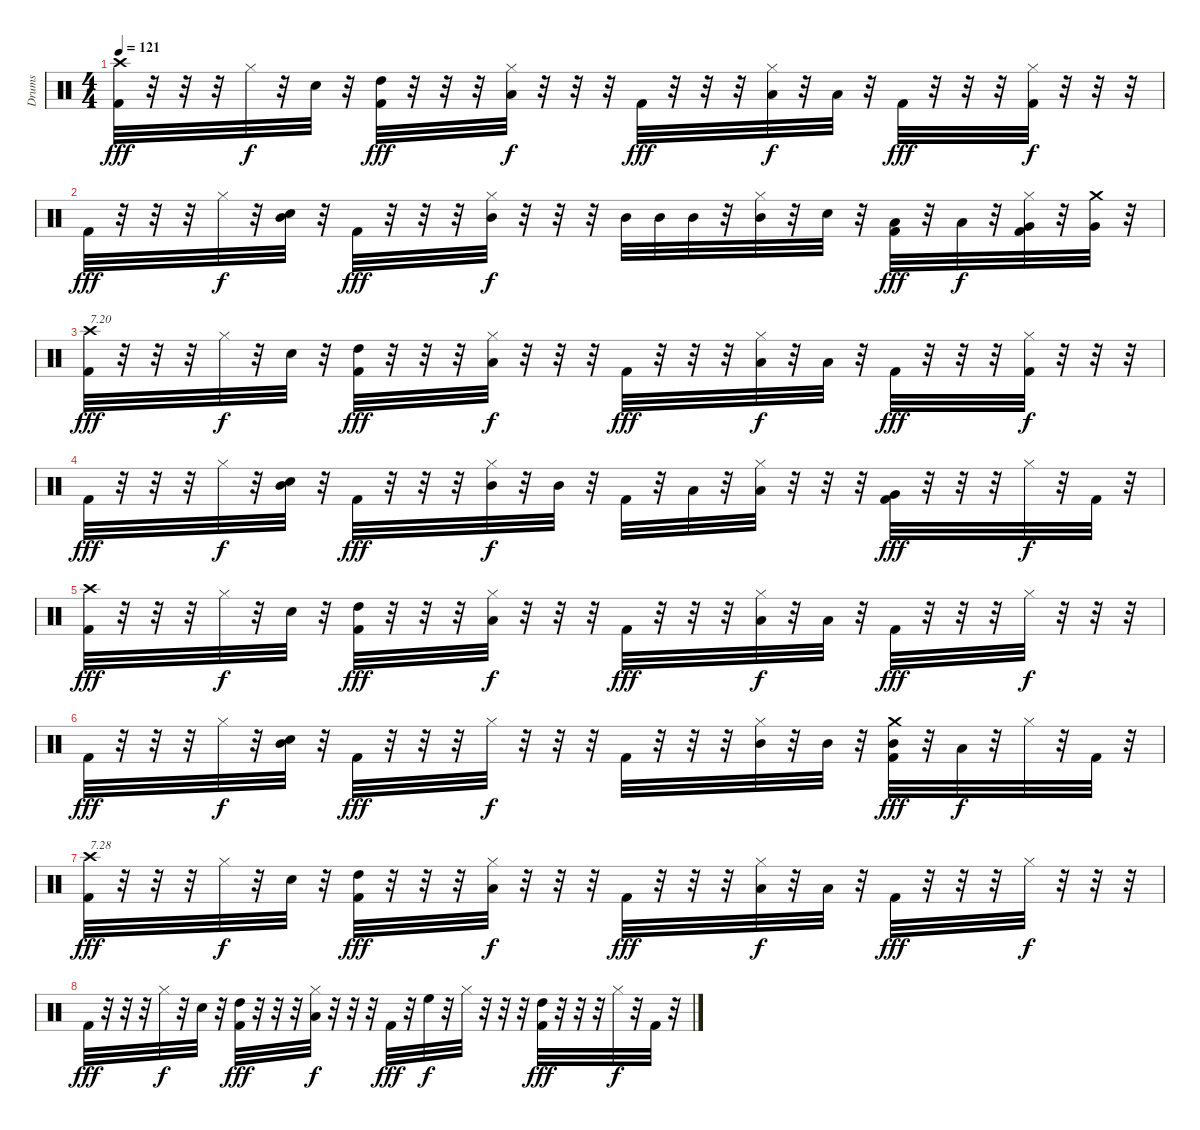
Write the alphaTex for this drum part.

\track ("Drums" "Drums") {instrument percussion}
\staff {score}
\articulation defaults
\ts (4 4)
\tempo 121
\clef neutral
\ks c
("Kick (hit) 2" "Crash high (hit)").32{dy fff} r.32 r.32 r.32 "Hi-Hat (closed)".32{dy f} r.32 "Snare (hit) 2".32 r.32 ("Kick (hit) 2" "High Tom (hit)").32{dy fff} r.32 r.32 r.32 ("Hi-Hat (closed)" "Low Tom (hit)").32{dy f} r.32 r.32 r.32 "Kick (hit) 2".32{dy fff} r.32 r.32 r.32 ("Hi-Hat (closed)" "Low Tom (hit)").32{dy f} r.32 "Low Tom (hit)".32 r.32 "Kick (hit) 2".32{dy fff} r.32 r.32 r.32 ("Hi-Hat (closed)" "Kick (hit) 2").32{dy f} r.32 r.32 r.32 |
"Kick (hit) 2".32{dy fff} r.32 r.32 r.32 "Hi-Hat (closed)".32{dy f} r.32 ("Mid Tom (hit)" "Snare (hit) 2").32 r.32 "Kick (hit) 2".32{dy fff} r.32 r.32 r.32 ("Hi-Hat (closed)" "Mid Tom (hit)").32{dy f} r.32 r.32 r.32 "Mid Tom (hit)".32 "Mid Tom (hit)".32 "Mid Tom (hit)".32 r.32 ("Hi-Hat (closed)" "Mid Tom (hit)").32 r.32 "Snare (hit) 2".32 r.32 ("Kick (hit) 2" "Low Tom (hit)").32{dy fff} r.32 "Low Tom (hit)".32{dy f} r.32 ("Hi-Hat (closed)" "Kick (hit) 2" "Very Low Tom (hit)").32 r.32 ("Crash medium (hit)" "Very Low Tom (hit)").32 r.32 |
("Kick (hit) 2" "Crash high (hit)").32{txt "7.20" dy fff} r.32 r.32 r.32 "Hi-Hat (closed)".32{dy f} r.32 "Snare (hit) 2".32 r.32 ("Kick (hit) 2" "High Tom (hit)").32{dy fff} r.32 r.32 r.32 ("Hi-Hat (closed)" "Low Tom (hit)").32{dy f} r.32 r.32 r.32 "Kick (hit) 2".32{dy fff} r.32 r.32 r.32 ("Hi-Hat (closed)" "Low Tom (hit)").32{dy f} r.32 "Low Tom (hit)".32 r.32 "Kick (hit) 2".32{dy fff} r.32 r.32 r.32 ("Hi-Hat (closed)" "Kick (hit) 2").32{dy f} r.32 r.32 r.32 |
"Kick (hit) 2".32{dy fff} r.32 r.32 r.32 "Hi-Hat (closed)".32{dy f} r.32 ("Mid Tom (hit)" "Snare (hit) 2").32 r.32 "Kick (hit) 2".32{dy fff} r.32 r.32 r.32 ("Hi-Hat (closed)" "Mid Tom (hit)").32{dy f} r.32 "Mid Tom (hit)".32 r.32 "Kick (hit) 2".32 r.32 "Low Tom (hit)".32 r.32 ("Hi-Hat (closed)" "Low Tom (hit)").32 r.32 r.32 r.32 ("Kick (hit) 2" "Very Low Tom (hit)").32{dy fff} r.32 r.32 r.32 "Hi-Hat (closed)".32{dy f} r.32 "Kick (hit) 2".32 r.32 |
("Kick (hit) 2" "Crash high (hit)").32{dy fff} r.32 r.32 r.32 "Hi-Hat (closed)".32{dy f} r.32 "Snare (hit) 2".32 r.32 ("Kick (hit) 2" "High Tom (hit)").32{dy fff} r.32 r.32 r.32 ("Hi-Hat (closed)" "Low Tom (hit)").32{dy f} r.32 r.32 r.32 "Kick (hit) 2".32{dy fff} r.32 r.32 r.32 ("Hi-Hat (closed)" "Low Tom (hit)").32{dy f} r.32 "Low Tom (hit)".32 r.32 "Kick (hit) 2".32{dy fff} r.32 r.32 r.32 "Hi-Hat (closed)".32{dy f} r.32 r.32 r.32 |
"Kick (hit) 2".32{dy fff} r.32 r.32 r.32 "Hi-Hat (closed)".32{dy f} r.32 ("Mid Tom (hit)" "Snare (hit) 2").32 r.32 "Kick (hit) 2".32{dy fff} r.32 r.32 r.32 "Hi-Hat (closed)".32{dy f} r.32 r.32 r.32 "Kick (hit) 2".32 r.32 r.32 r.32 ("Hi-Hat (closed)" "Mid Tom (hit)").32 r.32 "Mid Tom (hit)".32 r.32 ("Kick (hit) 2" "Mid Tom (hit)" "Crash medium (hit)").32{dy fff} r.32 "Low Tom (hit)".32{dy f} r.32 "Hi-Hat (closed)".32 r.32 "Kick (hit) 2".32 r.32 |
("Kick (hit) 2" "Crash high (hit)").32{txt "7.28" dy fff} r.32 r.32 r.32 "Hi-Hat (closed)".32{dy f} r.32 "Snare (hit) 2".32 r.32 ("Kick (hit) 2" "High Tom (hit)").32{dy fff} r.32 r.32 r.32 ("Hi-Hat (closed)" "Low Tom (hit)").32{dy f} r.32 r.32 r.32 "Kick (hit) 2".32{dy fff} r.32 r.32 r.32 ("Hi-Hat (closed)" "Low Tom (hit)").32{dy f} r.32 "Low Tom (hit)".32 r.32 "Kick (hit) 2".32{dy fff} r.32 r.32 r.32 "Hi-Hat (closed)".32{dy f} r.32 r.32 r.32 |
"Kick (hit) 2".32{dy fff} r.32 r.32 r.32 "Hi-Hat (closed)".32{dy f} r.32 "Snare (hit) 2".32 r.32 ("Kick (hit) 2" "High Tom (hit)").32{dy fff} r.32 r.32 r.32 ("Hi-Hat (closed)" "Low Tom (hit)").32{dy f} r.32 r.32 r.32 "Kick (hit) 2".32{dy fff} r.32 "High Floor Tom (hit)".32{dy f} r.32 "Hi-Hat (closed)".32 r.32 r.32 r.32 ("Kick (hit) 2" "High Tom (hit)").32{dy fff} r.32 r.32 r.32 "Hi-Hat (closed)".32{dy f} r.32 "Kick (hit) 2".32 r.32
